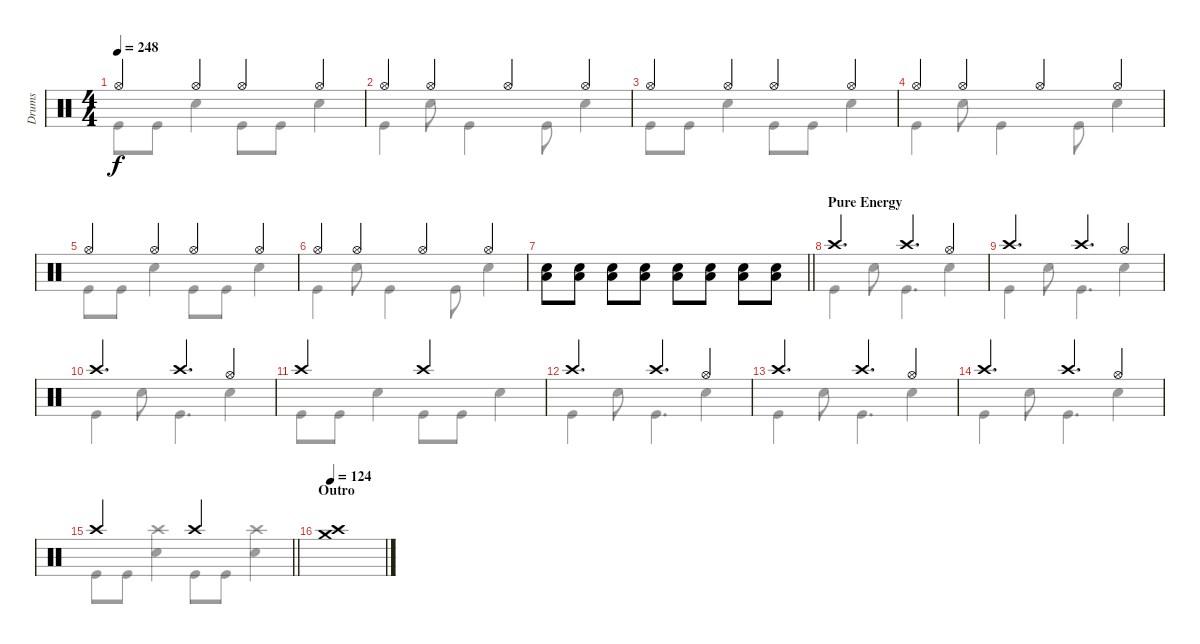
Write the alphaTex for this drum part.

\track ("Drums" "Drums") {instrument percussion}
\staff {score}
\articulation defaults
\voice
\ts (4 4)
\tempo 248
\clef neutral
\ks c "Hi-Hat (open)".4{dy f} "Hi-Hat (open)".4 "Hi-Hat (open)".4 "Hi-Hat (open)".4
|
"Hi-Hat (open)".4 "Hi-Hat (open)".4 "Hi-Hat (open)".4 "Hi-Hat (open)".4 |
"Hi-Hat (open)".4 "Hi-Hat (open)".4 "Hi-Hat (open)".4 "Hi-Hat (open)".4 |
"Hi-Hat (open)".4 "Hi-Hat (open)".4 "Hi-Hat (open)".4 "Hi-Hat (open)".4 |
"Hi-Hat (open)".4 "Hi-Hat (open)".4 "Hi-Hat (open)".4 "Hi-Hat (open)".4 |
"Hi-Hat (open)".4 "Hi-Hat (open)".4 "Hi-Hat (open)".4 "Hi-Hat (open)".4 |
\barLineRight lightlight
("Electric Snare (hit)" "Low Floor Tom (hit)").8 ("Electric Snare (hit)" "Low Floor Tom (hit)").8 ("Electric Snare (hit)" "Low Floor Tom (hit)").8 ("Electric Snare (hit)" "Low Floor Tom (hit)").8 ("Electric Snare (hit)" "Low Floor Tom (hit)").8 ("Electric Snare (hit)" "Low Floor Tom (hit)").8 ("Electric Snare (hit)" "Low Floor Tom (hit)").8 ("Electric Snare (hit)" "Low Floor Tom (hit)").8 |
\section ("" "Pure Energy")
"Crash high (hit)".4{d} "Crash high (hit)".4{d} "Hi-Hat (open)".4 |
"Crash high (hit)".4{d} "Crash high (hit)".4{d} "Hi-Hat (open)".4 |
"Crash high (hit)".4{d} "Crash high (hit)".4{d} "Hi-Hat (open)".4 |
"Crash high (hit)".2 "Crash high (hit)".2 |
"Crash high (hit)".4{d} "Crash high (hit)".4{d} "Hi-Hat (open)".4 |
"Crash high (hit)".4{d} "Crash high (hit)".4{d} "Hi-Hat (open)".4 |
"Crash high (hit)".4{d} "Crash high (hit)".4{d} "Hi-Hat (open)".4 |
\barLineRight lightlight "Crash high (hit)".2 "Crash high (hit)".2
|
\section ("" "Outro")
\tempo 124
("Crash medium (hit)" "Crash high (hit)").1
\voice
\clef neutral
\ottava regular
\simile none
\ks c "Kick (hit)".8{dy f} "Kick (hit)".8 "Electric Snare (hit)".4 "Kick (hit)".8 "Kick (hit)".8 "Electric Snare (hit)".4
|
"Kick (hit)".4 "Electric Snare (hit)".8 "Kick (hit)".4 "Kick (hit)".8 "Electric Snare (hit)".4 |
"Kick (hit)".8 "Kick (hit)".8 "Electric Snare (hit)".4 "Kick (hit)".8 "Kick (hit)".8 "Electric Snare (hit)".4 |
"Kick (hit)".4 "Electric Snare (hit)".8 "Kick (hit)".4 "Kick (hit)".8 "Electric Snare (hit)".4 |
"Kick (hit)".8 "Kick (hit)".8 "Electric Snare (hit)".4 "Kick (hit)".8 "Kick (hit)".8 "Electric Snare (hit)".4 |
"Kick (hit)".4 "Electric Snare (hit)".8 "Kick (hit)".4 "Kick (hit)".8 "Electric Snare (hit)".4 |
\barLineRight lightlight
|
"Kick (hit)".4 "Electric Snare (hit)".8 "Kick (hit)".4{d} "Electric Snare (hit)".4 |
"Kick (hit)".4 "Electric Snare (hit)".8 "Kick (hit)".4{d} "Electric Snare (hit)".4 |
"Kick (hit)".4 "Electric Snare (hit)".8 "Kick (hit)".4{d} "Electric Snare (hit)".4 |
"Kick (hit)".8 "Kick (hit)".8 "Electric Snare (hit)".4 "Kick (hit)".8 "Kick (hit)".8 "Electric Snare (hit)".4 |
"Kick (hit)".4 "Electric Snare (hit)".8 "Kick (hit)".4{d} "Electric Snare (hit)".4 |
"Kick (hit)".4 "Electric Snare (hit)".8 "Kick (hit)".4{d} "Electric Snare (hit)".4 |
"Kick (hit)".4 "Electric Snare (hit)".8 "Kick (hit)".4{d} "Electric Snare (hit)".4 |
\barLineRight lightlight "Kick (hit)".8 "Kick (hit)".8
("Crash high (hit)" "Electric Snare (hit)").4 "Kick (hit)".8 "Kick (hit)".8 ("Crash high (hit)" "Electric Snare (hit)").4 |
